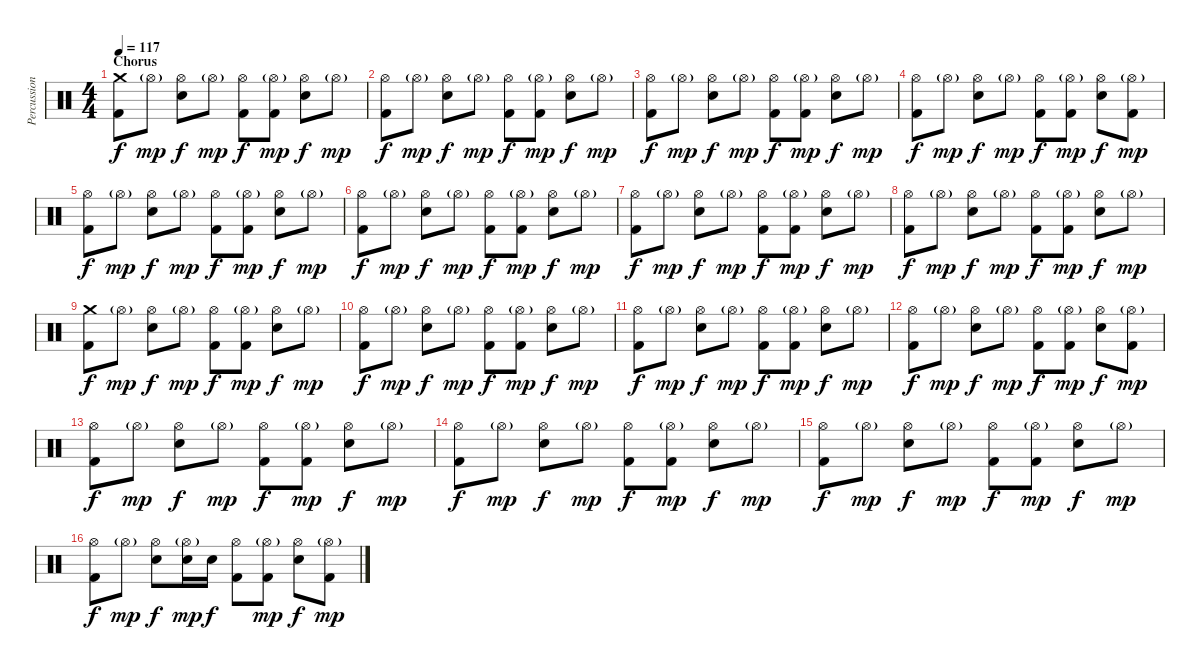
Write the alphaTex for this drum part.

\track ("Percussion" "Percussion") {instrument percussion}
\staff {score}
\articulation defaults
\ts (4 4)
\section ("" "Chorus")
\tempo 117
\clef neutral
\ks c
("Crash medium (hit)" "Kick (hit) 2").8{dy f} "Hi-Hat (open)"{g}.8{dy mp} ("Hi-Hat (open)" "Electric Snare (hit)").8{dy f} "Hi-Hat (open)"{g}.8{dy mp} ("Hi-Hat (open)" "Kick (hit) 2").8{dy f} ("Hi-Hat (open)"{g} "Kick (hit) 2").8{dy mp} ("Hi-Hat (open)" "Electric Snare (hit)").8{dy f} "Hi-Hat (open)"{g}.8{dy mp} |
("Hi-Hat (open)" "Kick (hit) 2").8{dy f} "Hi-Hat (open)"{g}.8{dy mp} ("Hi-Hat (open)" "Electric Snare (hit)").8{dy f} "Hi-Hat (open)"{g}.8{dy mp} ("Hi-Hat (open)" "Kick (hit) 2").8{dy f} ("Hi-Hat (open)"{g} "Kick (hit) 2").8{dy mp} ("Hi-Hat (open)" "Electric Snare (hit)").8{dy f} "Hi-Hat (open)"{g}.8{dy mp} |
("Hi-Hat (open)" "Kick (hit) 2").8{dy f} "Hi-Hat (open)"{g}.8{dy mp} ("Hi-Hat (open)" "Electric Snare (hit)").8{dy f} "Hi-Hat (open)"{g}.8{dy mp} ("Hi-Hat (open)" "Kick (hit) 2").8{dy f} ("Hi-Hat (open)"{g} "Kick (hit) 2").8{dy mp} ("Hi-Hat (open)" "Electric Snare (hit)").8{dy f} "Hi-Hat (open)"{g}.8{dy mp} |
("Hi-Hat (open)" "Kick (hit) 2").8{dy f} "Hi-Hat (open)"{g}.8{dy mp} ("Hi-Hat (open)" "Electric Snare (hit)").8{dy f} "Hi-Hat (open)"{g}.8{dy mp} ("Hi-Hat (open)" "Kick (hit) 2").8{dy f} ("Hi-Hat (open)"{g} "Kick (hit) 2").8{dy mp} ("Hi-Hat (open)" "Electric Snare (hit)").8{dy f} ("Hi-Hat (open)"{g} "Kick (hit) 2").8{dy mp} |
("Hi-Hat (open)" "Kick (hit) 2").8{dy f} "Hi-Hat (open)"{g}.8{dy mp} ("Hi-Hat (open)" "Electric Snare (hit)").8{dy f} "Hi-Hat (open)"{g}.8{dy mp} ("Hi-Hat (open)" "Kick (hit) 2").8{dy f} ("Hi-Hat (open)"{g} "Kick (hit) 2").8{dy mp} ("Hi-Hat (open)" "Electric Snare (hit)").8{dy f} "Hi-Hat (open)"{g}.8{dy mp} |
("Hi-Hat (open)" "Kick (hit) 2").8{dy f} "Hi-Hat (open)"{g}.8{dy mp} ("Hi-Hat (open)" "Electric Snare (hit)").8{dy f} "Hi-Hat (open)"{g}.8{dy mp} ("Hi-Hat (open)" "Kick (hit) 2").8{dy f} ("Hi-Hat (open)"{g} "Kick (hit) 2").8{dy mp} ("Hi-Hat (open)" "Electric Snare (hit)").8{dy f} "Hi-Hat (open)"{g}.8{dy mp} |
("Hi-Hat (open)" "Kick (hit) 2").8{dy f} "Hi-Hat (open)"{g}.8{dy mp} ("Hi-Hat (open)" "Electric Snare (hit)").8{dy f} "Hi-Hat (open)"{g}.8{dy mp} ("Hi-Hat (open)" "Kick (hit) 2").8{dy f} ("Hi-Hat (open)"{g} "Kick (hit) 2").8{dy mp} ("Hi-Hat (open)" "Electric Snare (hit)").8{dy f} "Hi-Hat (open)"{g}.8{dy mp} |
("Hi-Hat (open)" "Kick (hit) 2").8{dy f} "Hi-Hat (open)"{g}.8{dy mp} ("Hi-Hat (open)" "Electric Snare (hit)").8{dy f} "Hi-Hat (open)"{g}.8{dy mp} ("Hi-Hat (open)" "Kick (hit) 2").8{dy f} ("Hi-Hat (open)"{g} "Kick (hit) 2").8{dy mp} ("Hi-Hat (open)" "Electric Snare (hit)").8{dy f} "Hi-Hat (open)"{g}.8{dy mp} |
("Crash medium (hit)" "Kick (hit) 2").8{dy f} "Hi-Hat (open)"{g}.8{dy mp} ("Hi-Hat (open)" "Electric Snare (hit)").8{dy f} "Hi-Hat (open)"{g}.8{dy mp} ("Hi-Hat (open)" "Kick (hit) 2").8{dy f} ("Hi-Hat (open)"{g} "Kick (hit) 2").8{dy mp} ("Hi-Hat (open)" "Electric Snare (hit)").8{dy f} "Hi-Hat (open)"{g}.8{dy mp} |
("Hi-Hat (open)" "Kick (hit) 2").8{dy f} "Hi-Hat (open)"{g}.8{dy mp} ("Hi-Hat (open)" "Electric Snare (hit)").8{dy f} "Hi-Hat (open)"{g}.8{dy mp} ("Hi-Hat (open)" "Kick (hit) 2").8{dy f} ("Hi-Hat (open)"{g} "Kick (hit) 2").8{dy mp} ("Hi-Hat (open)" "Electric Snare (hit)").8{dy f} "Hi-Hat (open)"{g}.8{dy mp} |
("Hi-Hat (open)" "Kick (hit) 2").8{dy f} "Hi-Hat (open)"{g}.8{dy mp} ("Hi-Hat (open)" "Electric Snare (hit)").8{dy f} "Hi-Hat (open)"{g}.8{dy mp} ("Hi-Hat (open)" "Kick (hit) 2").8{dy f} ("Hi-Hat (open)"{g} "Kick (hit) 2").8{dy mp} ("Hi-Hat (open)" "Electric Snare (hit)").8{dy f} "Hi-Hat (open)"{g}.8{dy mp} |
("Hi-Hat (open)" "Kick (hit) 2").8{dy f} "Hi-Hat (open)"{g}.8{dy mp} ("Hi-Hat (open)" "Electric Snare (hit)").8{dy f} "Hi-Hat (open)"{g}.8{dy mp} ("Hi-Hat (open)" "Kick (hit) 2").8{dy f} ("Hi-Hat (open)"{g} "Kick (hit) 2").8{dy mp} ("Hi-Hat (open)" "Electric Snare (hit)").8{dy f} ("Hi-Hat (open)"{g} "Kick (hit) 2").8{dy mp} |
("Hi-Hat (open)" "Kick (hit) 2").8{dy f} "Hi-Hat (open)"{g}.8{dy mp} ("Hi-Hat (open)" "Electric Snare (hit)").8{dy f} "Hi-Hat (open)"{g}.8{dy mp} ("Hi-Hat (open)" "Kick (hit) 2").8{dy f} ("Hi-Hat (open)"{g} "Kick (hit) 2").8{dy mp} ("Hi-Hat (open)" "Electric Snare (hit)").8{dy f} "Hi-Hat (open)"{g}.8{dy mp} |
("Hi-Hat (open)" "Kick (hit) 2").8{dy f} "Hi-Hat (open)"{g}.8{dy mp} ("Hi-Hat (open)" "Electric Snare (hit)").8{dy f} "Hi-Hat (open)"{g}.8{dy mp} ("Hi-Hat (open)" "Kick (hit) 2").8{dy f} ("Hi-Hat (open)"{g} "Kick (hit) 2").8{dy mp} ("Hi-Hat (open)" "Electric Snare (hit)").8{dy f} "Hi-Hat (open)"{g}.8{dy mp} |
("Hi-Hat (open)" "Kick (hit) 2").8{dy f} "Hi-Hat (open)"{g}.8{dy mp} ("Hi-Hat (open)" "Electric Snare (hit)").8{dy f} "Hi-Hat (open)"{g}.8{dy mp} ("Hi-Hat (open)" "Kick (hit) 2").8{dy f} ("Hi-Hat (open)"{g} "Kick (hit) 2").8{dy mp} ("Hi-Hat (open)" "Electric Snare (hit)").8{dy f} "Hi-Hat (open)"{g}.8{dy mp} |
("Hi-Hat (open)" "Kick (hit) 2").8{dy f} "Hi-Hat (open)"{g}.8{dy mp} ("Hi-Hat (open)" "Electric Snare (hit)").8{dy f} ("Hi-Hat (open)"{g} "Electric Snare (hit)").16{dy mp} "Electric Snare (hit)".16{dy f} ("Hi-Hat (open)" "Kick (hit) 2").8 ("Hi-Hat (open)"{g} "Kick (hit) 2").8{dy mp} ("Hi-Hat (open)" "Electric Snare (hit)").8{dy f} ("Hi-Hat (open)"{g} "Kick (hit) 2").8{dy mp}
